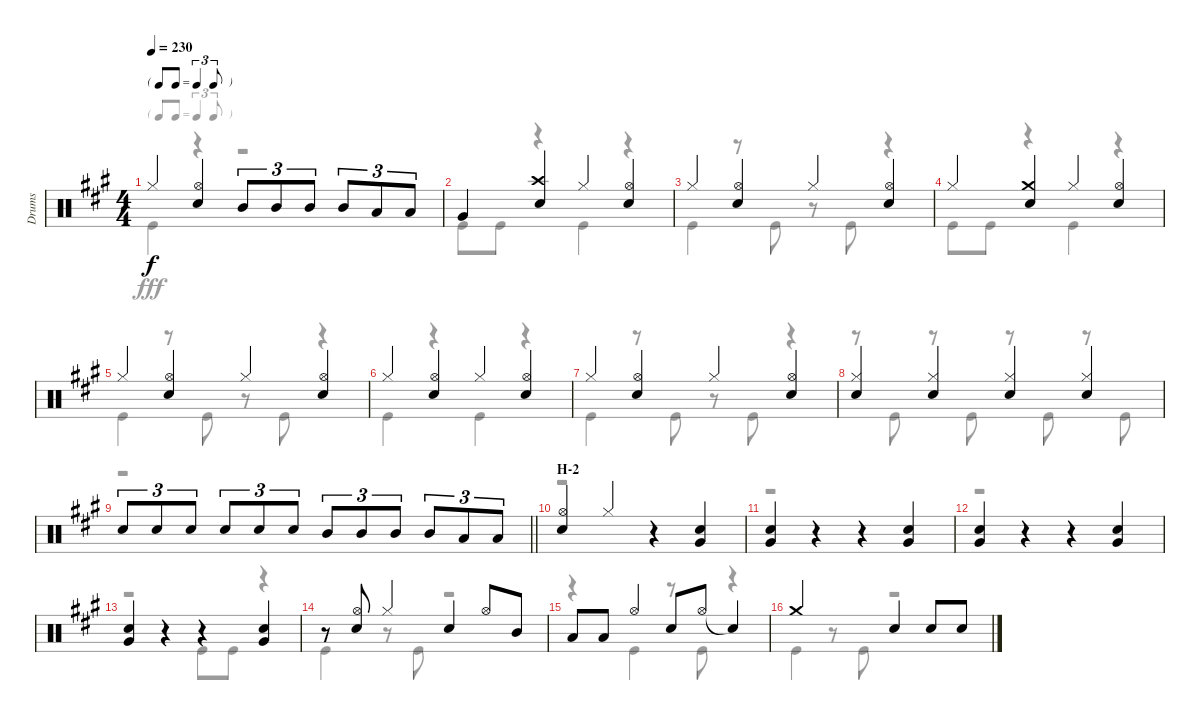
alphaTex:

\track ("Drums" "Drums") {instrument percussion}
\staff {score}
\articulation defaults
\voice
\ts (4 4)
\tf triplet8th
\tempo 230
\clef neutral
\ks a "Hi-Hat (closed)".4{dy f}
("Hi-Hat (open)" "Snare (hit) 2").4 "Mid Tom (hit)".8{tu (3 2)} "Mid Tom (hit)".8{tu (3 2)} "Mid Tom (hit)".8{tu (3 2)} "Mid Tom (hit)".8{tu (3 2)} "Low Tom (hit)".8{tu (3 2)} "Low Tom (hit)".8{tu (3 2)} |
"Very Low Tom (hit)".4 ("Crash high (hit)" "Snare (hit) 2").4 "Hi-Hat (closed)".4 ("Hi-Hat (open)" "Snare (hit) 2").4 |
"Hi-Hat (closed)".4 ("Hi-Hat (open)" "Snare (hit) 2").4 "Hi-Hat (closed)".4 ("Hi-Hat (open)" "Snare (hit) 2").4 |
"Hi-Hat (closed)".4 ("Crash medium (hit)" "Snare (hit) 2").4 "Hi-Hat (closed)".4 ("Hi-Hat (open)" "Snare (hit) 2").4 |
"Hi-Hat (closed)".4 ("Hi-Hat (open)" "Snare (hit) 2").4 "Hi-Hat (closed)".4 ("Hi-Hat (open)" "Snare (hit) 2").4 |
"Hi-Hat (closed)".4 ("Hi-Hat (open)" "Snare (hit) 2").4 "Hi-Hat (closed)".4 ("Hi-Hat (open)" "Snare (hit) 2").4 |
"Hi-Hat (closed)".4 ("Hi-Hat (open)" "Snare (hit) 2").4 "Hi-Hat (closed)".4 ("Hi-Hat (open)" "Snare (hit) 2").4 |
("Hi-Hat (closed)" "Snare (hit) 2").4 ("Hi-Hat (closed)" "Snare (hit) 2").4 ("Hi-Hat (closed)" "Snare (hit) 2").4 ("Hi-Hat (closed)" "Snare (hit) 2").4 |
\barLineRight lightlight "Snare (hit) 2".8{tu (3 2)} "Snare (hit) 2".8{tu (3 2)} "Snare (hit) 2".8{tu (3 2)} "Snare (hit) 2".8{tu (3 2)} "Snare (hit) 2".8{tu (3 2)} "Snare (hit) 2".8{tu (3 2)} "Mid Tom (hit)".8{tu (3 2)} "Mid Tom (hit)".8{tu (3 2)} "Mid Tom (hit)".8{tu (3 2)} "Mid Tom (hit)".8{tu (3 2)} "Low Tom (hit)".8{tu (3 2)} "Low Tom (hit)".8{tu (3 2)}
|
\section ("" "H-2")
("Hi-Hat (open)" "Snare (hit) 2").4 "Hi-Hat (closed)".4 r.4 ("Snare (hit) 2" "Very Low Tom (hit)").4 |
("Snare (hit) 2" "Very Low Tom (hit)").4 r.4 r.4 ("Snare (hit) 2" "Very Low Tom (hit)").4 |
("Snare (hit) 2" "Very Low Tom (hit)").4 r.4 r.4 ("Snare (hit) 2" "Very Low Tom (hit)").4 |
("Snare (hit) 2" "Very Low Tom (hit)").4 r.4 r.4 ("Snare (hit) 2" "Very Low Tom (hit)").4 |
r.8 ("Hi-Hat (open)" "Snare (hit) 2").8 "Hi-Hat (closed)".4 "Snare (hit) 2".4 "Hi-Hat (open)".8 "Mid Tom (hit)".8 |
"Low Tom (hit)".8 "Low Tom (hit)".8 "Hi-Hat (open)".4 "Snare (hit) 2".8 "Hi-Hat (open)".8 "Snare (hit)"{t}.4 |
"Crash medium (hit)".2 "Snare (hit) 2".4 "Snare (hit) 2".8 "Snare (hit) 2".8
\voice
\clef neutral
\ottava regular
\simile none
\ks a "Kick (hit)".4{dy fff}
r.4 r.2 |
"Kick (hit)".8 "Kick (hit)".8 r.4 "Kick (hit)".4 r.4 |
"Kick (hit)".4 r.8 "Kick (hit)".8 r.8 "Kick (hit)".8 r.4 |
"Kick (hit)".8 "Kick (hit)".8 r.4 "Kick (hit)".4 r.4 |
"Kick (hit)".4 r.8 "Kick (hit)".8 r.8 "Kick (hit)".8 r.4 |
"Kick (hit)".4 r.4 "Kick (hit)".4 r.4 |
"Kick (hit)".4 r.8 "Kick (hit)".8 r.8 "Kick (hit)".8 r.4 |
r.8 "Kick (hit)".8 r.8 "Kick (hit)".8 r.8 "Kick (hit)".8 r.8 "Kick (hit)".8 |
\barLineRight lightlight
r.1 |
r.1 |
r.1 |
r.1 |
r.2 "Kick (hit)".8 "Kick (hit)".8 r.4 |
"Kick (hit)".4 r.8 "Kick (hit)".8 r.2 |
r.4 "Kick (hit)".4 r.8 "Kick (hit)".8 r.4 |
"Kick (hit)".4 r.8 "Kick (hit)".8 r.2
